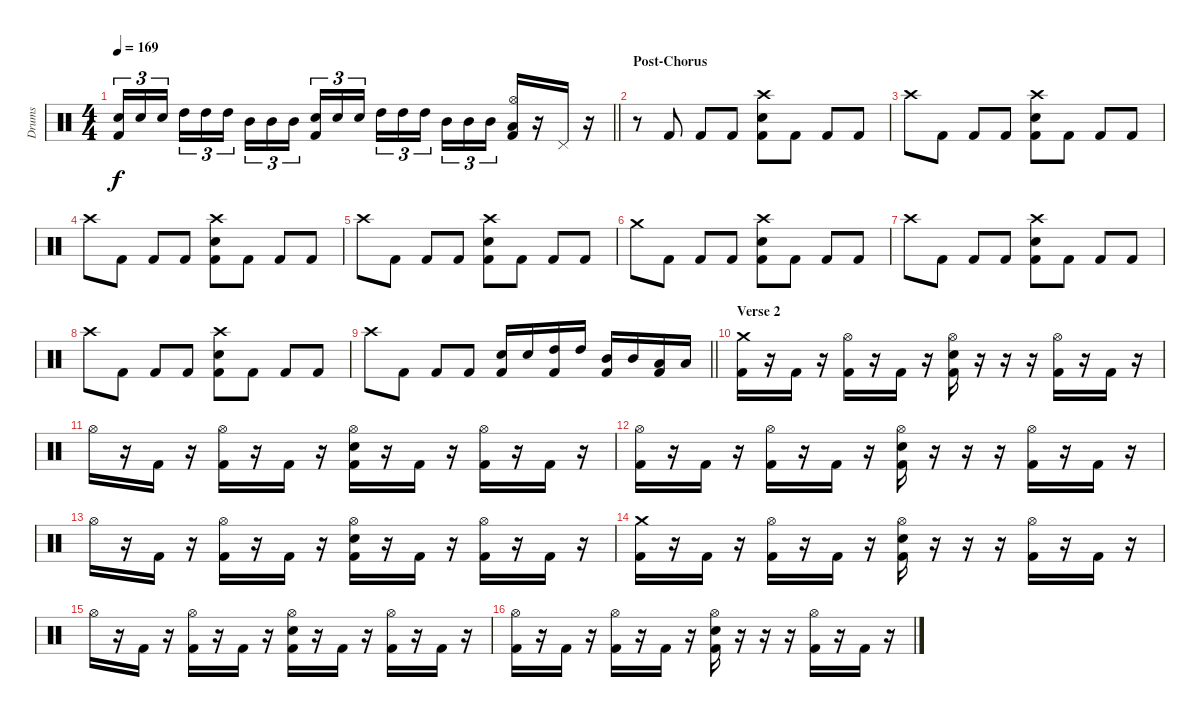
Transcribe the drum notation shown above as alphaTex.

\track ("Drums" "Drums") {instrument percussion}
\staff {score}
\articulation defaults
\ts (4 4)
\tempo 169
\clef neutral
\barLineRight lightlight
\ks c
("Snare (hit) 2" "Kick (hit) 2").16{tu (3 2) dy f} "Snare (hit) 2".16{tu (3 2)} "Snare (hit) 2".16{tu (3 2) beam splitsecondary} "High Tom (hit)".16{tu (3 2)} "High Tom (hit)".16{tu (3 2)} "High Tom (hit)".16{tu (3 2)} "Mid Tom (hit)".16{tu (3 2)} "Mid Tom (hit)".16{tu (3 2)} "Mid Tom (hit)".16{tu (3 2) beam splitsecondary} ("Snare (hit) 2" "Kick (hit) 2").16{tu (3 2)} "Snare (hit) 2".16{tu (3 2)} "Snare (hit) 2".16{tu (3 2)} "High Tom (hit)".16{tu (3 2)} "High Tom (hit)".16{tu (3 2)} "High Tom (hit)".16{tu (3 2) beam splitsecondary} "Mid Tom (hit)".16{tu (3 2)} "Mid Tom (hit)".16{tu (3 2)} "Mid Tom (hit)".16{tu (3 2)} ("Hi-Hat (open)" "Low Tom (hit)" "Kick (hit) 2").16 r.16 "Pedal Hi-Hat (hit)".16 r.16 |
\section ("" "Post-Chorus")
r.8 "Kick (hit) 2".8 "Kick (hit) 2".8 "Kick (hit) 2".8 ("Crash high (hit)" "Snare (hit) 2" "Kick (hit) 2").8 "Kick (hit) 2".8 "Kick (hit) 2".8 "Kick (hit) 2".8 |
"Crash high (hit)".8 "Kick (hit) 2".8 "Kick (hit) 2".8 "Kick (hit) 2".8 ("Crash high (hit)" "Snare (hit) 2" "Kick (hit) 2").8 "Kick (hit) 2".8 "Kick (hit) 2".8 "Kick (hit) 2".8 |
"Crash high (hit)".8 "Kick (hit) 2".8 "Kick (hit) 2".8 "Kick (hit) 2".8 ("Crash high (hit)" "Snare (hit) 2" "Kick (hit) 2").8 "Kick (hit) 2".8 "Kick (hit) 2".8 "Kick (hit) 2".8 |
"Crash high (hit)".8 "Kick (hit) 2".8 "Kick (hit) 2".8 "Kick (hit) 2".8 ("Crash high (hit)" "Snare (hit) 2" "Kick (hit) 2").8 "Kick (hit) 2".8 "Kick (hit) 2".8 "Kick (hit) 2".8 |
"Crash medium (hit)".8 "Kick (hit) 2".8 "Kick (hit) 2".8 "Kick (hit) 2".8 ("Crash high (hit)" "Snare (hit) 2" "Kick (hit) 2").8 "Kick (hit) 2".8 "Kick (hit) 2".8 "Kick (hit) 2".8 |
"Crash high (hit)".8 "Kick (hit) 2".8 "Kick (hit) 2".8 "Kick (hit) 2".8 ("Crash high (hit)" "Snare (hit) 2" "Kick (hit) 2").8 "Kick (hit) 2".8 "Kick (hit) 2".8 "Kick (hit) 2".8 |
"Crash high (hit)".8 "Kick (hit) 2".8 "Kick (hit) 2".8 "Kick (hit) 2".8 ("Crash high (hit)" "Snare (hit) 2" "Kick (hit) 2").8 "Kick (hit) 2".8 "Kick (hit) 2".8 "Kick (hit) 2".8 |
\barLineRight lightlight "Crash high (hit)".8 "Kick (hit) 2".8 "Kick (hit) 2".8 "Kick (hit) 2".8
("Snare (hit) 2" "Kick (hit) 2").16 "Snare (hit) 2".16 ("High Tom (hit)" "Kick (hit) 2").16 "High Tom (hit)".16 ("Mid Tom (hit)" "Kick (hit) 2").16 "Mid Tom (hit)".16 ("Low Tom (hit)" "Kick (hit) 2").16 "Low Tom (hit)".16 |
\section ("" "Verse 2")
("Crash medium (hit)" "Kick (hit) 2").16 r.16 "Kick (hit) 2".16 r.16 ("Hi-Hat (open)" "Kick (hit) 2").16 r.16 "Kick (hit) 2".16 r.16 ("Hi-Hat (open)" "Snare (hit) 2" "Kick (hit) 2").16 r.16 r.16 r.16 ("Hi-Hat (open)" "Kick (hit) 2").16 r.16 "Kick (hit) 2".16 r.16 |
"Hi-Hat (open)".16 r.16 "Kick (hit) 2".16 r.16 ("Hi-Hat (open)" "Kick (hit) 2").16 r.16 "Kick (hit) 2".16 r.16 ("Hi-Hat (open)" "Snare (hit) 2" "Kick (hit) 2").16 r.16 "Kick (hit) 2".16 r.16 ("Hi-Hat (open)" "Kick (hit) 2").16 r.16 "Kick (hit) 2".16 r.16 |
("Hi-Hat (open)" "Kick (hit) 2").16 r.16 "Kick (hit) 2".16 r.16 ("Hi-Hat (open)" "Kick (hit) 2").16 r.16 "Kick (hit) 2".16 r.16 ("Hi-Hat (open)" "Snare (hit) 2" "Kick (hit) 2").16 r.16 r.16 r.16 ("Hi-Hat (open)" "Kick (hit) 2").16 r.16 "Kick (hit) 2".16 r.16 |
"Hi-Hat (open)".16 r.16 "Kick (hit) 2".16 r.16 ("Hi-Hat (open)" "Kick (hit) 2").16 r.16 "Kick (hit) 2".16 r.16 ("Hi-Hat (open)" "Snare (hit) 2" "Kick (hit) 2").16 r.16 "Kick (hit) 2".16 r.16 ("Hi-Hat (open)" "Kick (hit) 2").16 r.16 "Kick (hit) 2".16 r.16 |
("Crash medium (hit)" "Kick (hit) 2").16 r.16 "Kick (hit) 2".16 r.16 ("Hi-Hat (open)" "Kick (hit) 2").16 r.16 "Kick (hit) 2".16 r.16 ("Hi-Hat (open)" "Snare (hit) 2" "Kick (hit) 2").16 r.16 r.16 r.16 ("Hi-Hat (open)" "Kick (hit) 2").16 r.16 "Kick (hit) 2".16 r.16 |
"Hi-Hat (open)".16 r.16 "Kick (hit) 2".16 r.16 ("Hi-Hat (open)" "Kick (hit) 2").16 r.16 "Kick (hit) 2".16 r.16 ("Hi-Hat (open)" "Snare (hit) 2" "Kick (hit) 2").16 r.16 "Kick (hit) 2".16 r.16 ("Hi-Hat (open)" "Kick (hit) 2").16 r.16 "Kick (hit) 2".16 r.16 |
("Hi-Hat (open)" "Kick (hit) 2").16 r.16 "Kick (hit) 2".16 r.16 ("Hi-Hat (open)" "Kick (hit) 2").16 r.16 "Kick (hit) 2".16 r.16 ("Hi-Hat (open)" "Snare (hit) 2" "Kick (hit) 2").16 r.16 r.16 r.16 ("Hi-Hat (open)" "Kick (hit) 2").16 r.16 "Kick (hit) 2".16 r.16
